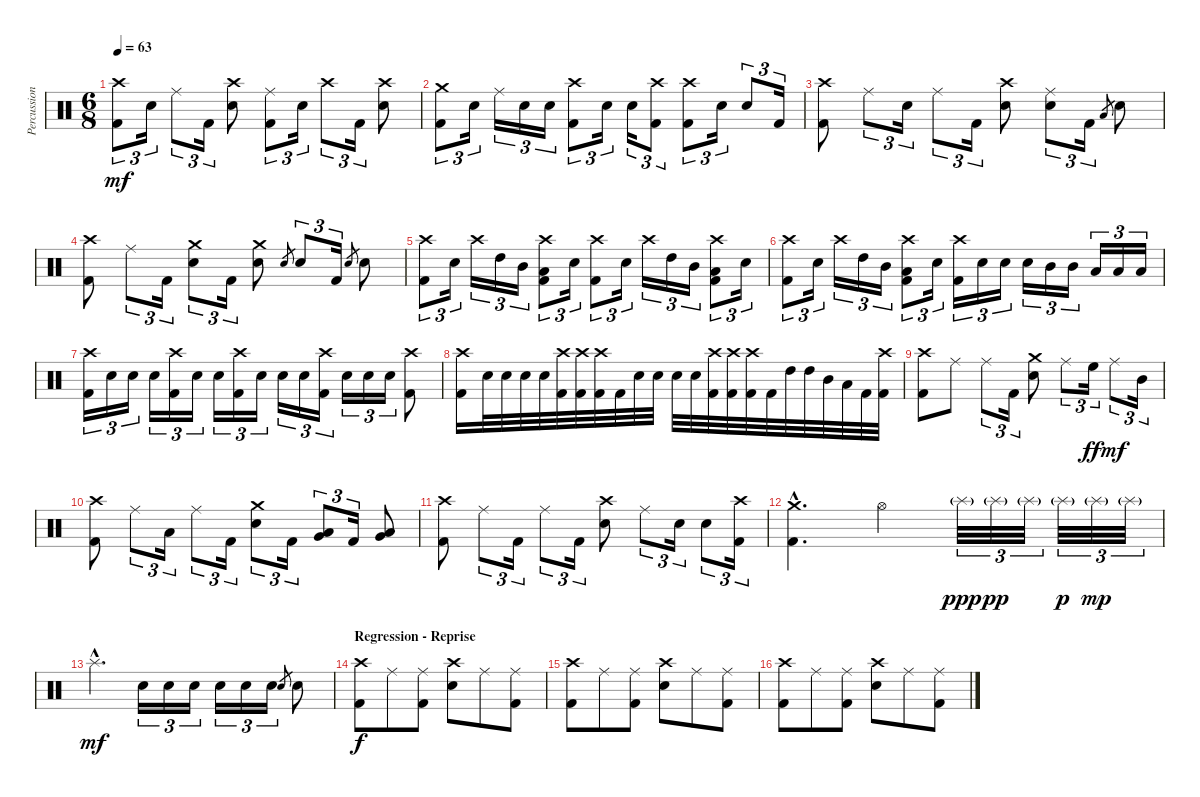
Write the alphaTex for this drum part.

\track ("Percussion" "Percussion") {instrument percussion}
\staff {score}
\articulation defaults
\ts (6 8)
\tempo 63
\clef neutral
\ks c
("Crash high (hit)" "Kick (hit) 2").8{tu (3 2) dy mf} "Electric Snare (hit)".16{tu (3 2)} "Ride (middle)".8{tu (3 2)} "Kick (hit) 2".16{tu (3 2)} ("Crash high (hit)" "Electric Snare (hit)").8 ("Ride (middle)" "Kick (hit) 2").8{tu (3 2)} "Electric Snare (hit)".16{tu (3 2)} "Crash high (hit)".8{tu (3 2)} "Kick (hit) 2".16{tu (3 2)} ("Crash high (hit)" "Electric Snare (hit)").8 |
("Crash medium (hit)" "Kick (hit) 2").8{tu (3 2)} "Electric Snare (hit)".16{tu (3 2)} "Ride (middle)".16{tu (3 2)} "Electric Snare (hit)".16{tu (3 2)} "Electric Snare (hit)".16{tu (3 2)} ("Crash high (hit)" "Kick (hit) 2").8{tu (3 2)} "Electric Snare (hit)".16{tu (3 2)} "Electric Snare (hit)".16{tu (3 2)} ("Crash high (hit)" "Kick (hit) 2").8{tu (3 2)} ("Crash high (hit)" "Kick (hit) 2").8{tu (3 2)} "Electric Snare (hit)".16{tu (3 2)} "Electric Snare (hit)".8{tu (3 2)} "Kick (hit) 2".16{tu (3 2)} |
("Crash high (hit)" "Kick (hit) 2").8 "Ride (middle)".8{tu (3 2)} "Electric Snare (hit)".16{tu (3 2)} "Ride (middle)".8{tu (3 2)} "Kick (hit) 2".16{tu (3 2)} ("Crash high (hit)" "Electric Snare (hit)").8 ("Ride (middle)" "Electric Snare (hit)").8{tu (3 2)} "Kick (hit) 2".16{tu (3 2)} "Low Tom (hit)".8{gr} "Electric Snare (hit)".8 |
("Crash high (hit)" "Kick (hit) 2").8 "Ride (middle)".8{tu (3 2)} "Kick (hit) 2".16{tu (3 2)} ("Crash medium (hit)" "Electric Snare (hit)").8{tu (3 2)} "Kick (hit) 2".16{tu (3 2)} ("Crash medium (hit)" "Electric Snare (hit)").8 "Electric Snare (hit)".8{gr} "Electric Snare (hit)".8{tu (3 2)} "Kick (hit) 2".16{tu (3 2)} "Electric Snare (hit)".8{gr} "Electric Snare (hit)".8 |
("Crash high (hit)" "Kick (hit) 2").8{tu (3 2)} "Electric Snare (hit)".16{tu (3 2)} "Crash high (hit)".16{tu (3 2)} "High Tom (hit)".16{tu (3 2)} "Mid Tom (hit)".16{tu (3 2)} ("Crash high (hit)" "Low Tom (hit)" "Kick (hit) 2").8{tu (3 2)} "Electric Snare (hit)".16{tu (3 2)} ("Crash high (hit)" "Kick (hit) 2").8{tu (3 2)} "Electric Snare (hit)".16{tu (3 2)} "Crash high (hit)".16{tu (3 2)} "High Tom (hit)".16{tu (3 2)} "Mid Tom (hit)".16{tu (3 2)} ("Crash high (hit)" "Low Tom (hit)" "Kick (hit) 2").8{tu (3 2)} "Electric Snare (hit)".16{tu (3 2)} |
("Crash high (hit)" "Kick (hit) 2").8{tu (3 2)} "Electric Snare (hit)".16{tu (3 2)} "Crash high (hit)".16{tu (3 2)} "High Tom (hit)".16{tu (3 2)} "Mid Tom (hit)".16{tu (3 2)} ("Crash high (hit)" "Low Tom (hit)" "Kick (hit) 2").8{tu (3 2)} "Electric Snare (hit)".16{tu (3 2)} ("Crash high (hit)" "Kick (hit) 2").16{tu (3 2)} "Electric Snare (hit)".16{tu (3 2)} "Electric Snare (hit)".16{tu (3 2)} "Electric Snare (hit)".16{tu (3 2)} "Mid Tom (hit)".16{tu (3 2)} "Mid Tom (hit)".16{tu (3 2)} "Low Tom (hit)".16{tu (3 2)} "Low Tom (hit)".16{tu (3 2)} "Low Tom (hit)".16{tu (3 2)} |
("Crash high (hit)" "Kick (hit) 2").16{tu (3 2)} "Electric Snare (hit)".16{tu (3 2)} "Electric Snare (hit)".16{tu (3 2)} "Electric Snare (hit)".16{tu (3 2)} ("Crash high (hit)" "Kick (hit) 2").16{tu (3 2)} "Electric Snare (hit)".16{tu (3 2)} "Electric Snare (hit)".16{tu (3 2)} ("Crash high (hit)" "Kick (hit) 2").16{tu (3 2)} "Electric Snare (hit)".16{tu (3 2)} "Electric Snare (hit)".16{tu (3 2)} "Electric Snare (hit)".16{tu (3 2)} ("Crash high (hit)" "Kick (hit) 2").16{tu (3 2)} "Electric Snare (hit)".16{tu (3 2)} "Electric Snare (hit)".16{tu (3 2)} "Electric Snare (hit)".16{tu (3 2)} ("Crash high (hit)" "Kick (hit) 2").8 |
("Crash high (hit)" "Kick (hit) 2").16 "Electric Snare (hit)".32 "Electric Snare (hit)".32 "Electric Snare (hit)".32 "Electric Snare (hit)".32 ("Crash high (hit)" "Kick (hit) 2").32 ("Crash high (hit)" "Kick (hit) 2").32 ("Crash high (hit)" "Kick (hit) 2").32 "Kick (hit) 2".32 "Electric Snare (hit)".32 "Electric Snare (hit)".32 "Electric Snare (hit)".32 "Electric Snare (hit)".32 ("Crash high (hit)" "Kick (hit) 2").32 ("Crash high (hit)" "Kick (hit) 2").32 ("Crash high (hit)" "Kick (hit) 2").32 "Kick (hit) 2".32 "High Tom (hit)".32 "High Tom (hit)".32 "Mid Tom (hit)".32 "Low Tom (hit)".32 "Kick (hit) 2".32 ("Crash high (hit)" "Kick (hit) 2").32 |
("Crash high (hit)" "Kick (hit) 2").8 "Ride (middle)".8 "Ride (middle)".8{tu (3 2)} "Kick (hit) 2".16{tu (3 2)} ("Crash medium (hit)" "Electric Snare (hit)").8 "Ride (middle)".8{tu (3 2)} "High Floor Tom (hit)".16{tu (3 2) dy ff} "Ride (middle)".8{tu (3 2) dy mf} "Mid Tom (hit)".16{tu (3 2)} |
("Crash high (hit)" "Kick (hit) 2").8 "Ride (middle)".8{tu (3 2)} "Low Tom (hit)".16{tu (3 2)} "Ride (middle)".8{tu (3 2)} "Kick (hit) 2".16{tu (3 2)} ("Crash medium (hit)" "Electric Snare (hit)").8{tu (3 2)} "Kick (hit) 2".16{tu (3 2)} ("Low Tom (hit)" "Very Low Tom (hit)").8{tu (3 2)} "Kick (hit) 2".16{tu (3 2)} ("Low Tom (hit)" "Very Low Tom (hit)").8 |
("Crash high (hit)" "Kick (hit) 2").8 "Ride (middle)".8{tu (3 2)} "Kick (hit) 2".16{tu (3 2)} "Ride (middle)".8{tu (3 2)} "Kick (hit) 2".16{tu (3 2)} ("Crash high (hit)" "Electric Snare (hit)").8 "Ride (middle)".8{tu (3 2)} "Electric Snare (hit)".16{tu (3 2)} "Electric Snare (hit)".8{tu (3 2)} ("Crash high (hit)" "Kick (hit) 2").16{tu (3 2)} |
("Crash medium (hit)"{hac} "Kick (hit) 2"{hac}).4{d} "Hi-Hat (open)".4 "Splash (hit)"{g}.32{tu (3 2) dy ppp} "Splash (hit)"{g}.32{tu (3 2) dy pp} "Splash (hit)"{g}.32{tu (3 2)} "Splash (hit)"{g}.32{tu (3 2) dy p} "Splash (hit)"{g}.32{tu (3 2) dy mp} "Splash (hit)"{g}.32{tu (3 2)} |
"Splash (hit)"{hac}.4{d dy mf} "Electric Snare (hit)".16{tu (3 2)} "Electric Snare (hit)".16{tu (3 2)} "Electric Snare (hit)".16{tu (3 2)} "Electric Snare (hit)".16{tu (3 2)} "Electric Snare (hit)".16{tu (3 2)} "Electric Snare (hit)".16{tu (3 2)} "Electric Snare (hit)".8{gr} "Electric Snare (hit)".8 |
\section ("" "Regression - Reprise")
("Crash high (hit)" "Kick (hit) 2").8{dy f} "Ride (middle)".8 ("Ride (middle)" "Kick (hit) 2").8 ("Crash high (hit)" "Electric Snare (hit)").8 "Ride (middle)".8 ("Ride (middle)" "Kick (hit) 2").8 |
("Crash high (hit)" "Kick (hit) 2").8 "Ride (middle)".8 ("Ride (middle)" "Kick (hit) 2").8 ("Crash high (hit)" "Electric Snare (hit)").8 "Ride (middle)".8 ("Ride (middle)" "Kick (hit) 2").8 |
("Crash high (hit)" "Kick (hit) 2").8 "Ride (middle)".8 ("Ride (middle)" "Kick (hit) 2").8 ("Crash high (hit)" "Electric Snare (hit)").8 "Ride (middle)".8 ("Ride (middle)" "Kick (hit) 2").8
